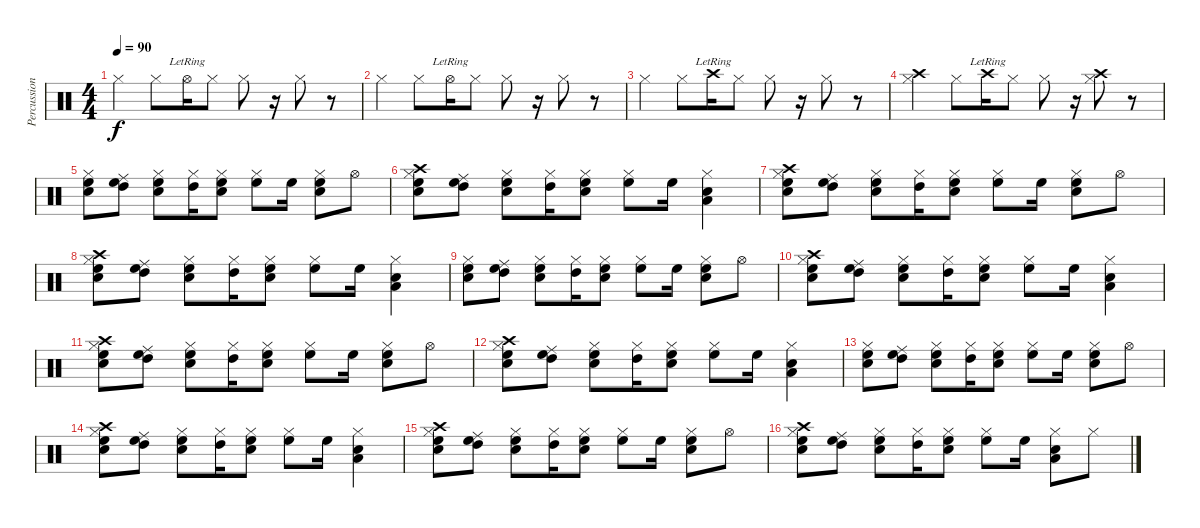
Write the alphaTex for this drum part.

\track ("Percussions" "Percussion") {instrument percussion}
\staff {score}
\articulation defaults
\ts (4 4)
\tempo 90
\clef neutral
\ks c "Hi-Hat (closed)".4{dy f} "Hi-Hat (closed)".8 "Hi-Hat (open)"{lr}.16 "Hi-Hat (closed)".8 "Hi-Hat (closed)".8
r.16 "Hi-Hat (closed)".8 r.8 |
"Hi-Hat (closed)".4 "Hi-Hat (closed)".8 "Hi-Hat (open)"{lr}.16 "Hi-Hat (closed)".8 "Hi-Hat (closed)".8 r.16 "Hi-Hat (closed)".8 r.8 |
"Hi-Hat (closed)".4 "Hi-Hat (closed)".8 "Crash high (hit)"{lr}.16 "Hi-Hat (closed)".8 "Hi-Hat (closed)".8 r.16 "Hi-Hat (closed)".8 r.8 |
("Hi-Hat (closed)" "Crash high (hit)").4 "Hi-Hat (closed)".8 "Crash high (hit)"{lr}.16 "Hi-Hat (closed)".8 "Hi-Hat (closed)".8 r.16 ("Hi-Hat (closed)" "Crash high (hit)").8 r.8 |
("Hi-Hat (closed)" "Snare (hit) 2" "High Floor Tom (hit)").8 ("Ride (middle)" "High Floor Tom (hit)" "High Tom (hit)").8 ("Hi-Hat (closed)" "Snare (hit) 2" "High Floor Tom (hit)").8 ("Hi-Hat (closed)" "High Tom (hit)").16 ("Hi-Hat (closed)" "Snare (hit) 2" "High Floor Tom (hit)").8 ("Hi-Hat (closed)" "High Floor Tom (hit)").8 "High Floor Tom (hit)".16 ("Hi-Hat (closed)" "Snare (hit) 2" "High Floor Tom (hit)").8 "Hi-Hat (open)".8 |
("Hi-Hat (closed)" "Snare (hit) 2" "High Floor Tom (hit)" "Crash high (hit)").8 ("Ride (middle)" "High Floor Tom (hit)" "High Tom (hit)").8 ("Hi-Hat (closed)" "Snare (hit) 2" "High Floor Tom (hit)").8 ("Hi-Hat (closed)" "High Tom (hit)").16 ("Hi-Hat (closed)" "Snare (hit) 2" "High Floor Tom (hit)").8 ("Hi-Hat (closed)" "High Floor Tom (hit)").8 "High Floor Tom (hit)".16 ("Hi-Hat (closed)" "Snare (hit) 2" "Low Floor Tom (hit)").4 |
("Hi-Hat (closed)" "Snare (hit) 2" "High Floor Tom (hit)" "Crash high (hit)").8 ("Ride (middle)" "High Floor Tom (hit)" "High Tom (hit)").8 ("Hi-Hat (closed)" "Snare (hit) 2" "High Floor Tom (hit)").8 ("Hi-Hat (closed)" "High Tom (hit)").16 ("Hi-Hat (closed)" "Snare (hit) 2" "High Floor Tom (hit)").8 ("Hi-Hat (closed)" "High Floor Tom (hit)").8 "High Floor Tom (hit)".16 ("Hi-Hat (closed)" "Snare (hit) 2" "High Floor Tom (hit)").8 "Hi-Hat (open)".8 |
("Hi-Hat (closed)" "Snare (hit) 2" "High Floor Tom (hit)" "Crash high (hit)").8 ("Ride (middle)" "High Floor Tom (hit)" "High Tom (hit)").8 ("Hi-Hat (closed)" "Snare (hit) 2" "High Floor Tom (hit)").8 ("Hi-Hat (closed)" "High Tom (hit)").16 ("Hi-Hat (closed)" "Snare (hit) 2" "High Floor Tom (hit)").8 ("Hi-Hat (closed)" "High Floor Tom (hit)").8 "High Floor Tom (hit)".16 ("Hi-Hat (closed)" "Snare (hit) 2" "Low Floor Tom (hit)").4 |
("Hi-Hat (closed)" "Snare (hit) 2" "High Floor Tom (hit)").8 ("Ride (middle)" "High Floor Tom (hit)" "High Tom (hit)").8 ("Hi-Hat (closed)" "Snare (hit) 2" "High Floor Tom (hit)").8 ("Hi-Hat (closed)" "High Tom (hit)").16 ("Hi-Hat (closed)" "Snare (hit) 2" "High Floor Tom (hit)").8 ("Hi-Hat (closed)" "High Floor Tom (hit)").8 "High Floor Tom (hit)".16 ("Hi-Hat (closed)" "Snare (hit) 2" "High Floor Tom (hit)").8 "Hi-Hat (open)".8 |
("Hi-Hat (closed)" "Snare (hit) 2" "High Floor Tom (hit)" "Crash high (hit)").8 ("Ride (middle)" "High Floor Tom (hit)" "High Tom (hit)").8 ("Hi-Hat (closed)" "Snare (hit) 2" "High Floor Tom (hit)").8 ("Hi-Hat (closed)" "High Tom (hit)").16 ("Hi-Hat (closed)" "Snare (hit) 2" "High Floor Tom (hit)").8 ("Hi-Hat (closed)" "High Floor Tom (hit)").8 "High Floor Tom (hit)".16 ("Hi-Hat (closed)" "Snare (hit) 2" "Low Floor Tom (hit)").4 |
("Hi-Hat (closed)" "Snare (hit) 2" "High Floor Tom (hit)" "Crash high (hit)").8 ("Ride (middle)" "High Floor Tom (hit)" "High Tom (hit)").8 ("Hi-Hat (closed)" "Snare (hit) 2" "High Floor Tom (hit)").8 ("Hi-Hat (closed)" "High Tom (hit)").16 ("Hi-Hat (closed)" "Snare (hit) 2" "High Floor Tom (hit)").8 ("Hi-Hat (closed)" "High Floor Tom (hit)").8 "High Floor Tom (hit)".16 ("Hi-Hat (closed)" "Snare (hit) 2" "High Floor Tom (hit)").8 "Hi-Hat (open)".8 |
("Hi-Hat (closed)" "Snare (hit) 2" "High Floor Tom (hit)" "Crash high (hit)").8 ("Ride (middle)" "High Floor Tom (hit)" "High Tom (hit)").8 ("Hi-Hat (closed)" "Snare (hit) 2" "High Floor Tom (hit)").8 ("Hi-Hat (closed)" "High Tom (hit)").16 ("Hi-Hat (closed)" "Snare (hit) 2" "High Floor Tom (hit)").8 ("Hi-Hat (closed)" "High Floor Tom (hit)").8 "High Floor Tom (hit)".16 ("Hi-Hat (closed)" "Snare (hit) 2" "Low Floor Tom (hit)").4 |
("Hi-Hat (closed)" "Snare (hit) 2" "High Floor Tom (hit)").8 ("Ride (middle)" "High Floor Tom (hit)" "High Tom (hit)").8 ("Hi-Hat (closed)" "Snare (hit) 2" "High Floor Tom (hit)").8 ("Hi-Hat (closed)" "High Tom (hit)").16 ("Hi-Hat (closed)" "Snare (hit) 2" "High Floor Tom (hit)").8 ("Hi-Hat (closed)" "High Floor Tom (hit)").8 "High Floor Tom (hit)".16 ("Hi-Hat (closed)" "Snare (hit) 2" "High Floor Tom (hit)").8 "Hi-Hat (open)".8 |
("Hi-Hat (closed)" "Snare (hit) 2" "High Floor Tom (hit)" "Crash high (hit)").8 ("Ride (middle)" "High Floor Tom (hit)" "High Tom (hit)").8 ("Hi-Hat (closed)" "Snare (hit) 2" "High Floor Tom (hit)").8 ("Hi-Hat (closed)" "High Tom (hit)").16 ("Hi-Hat (closed)" "Snare (hit) 2" "High Floor Tom (hit)").8 ("Hi-Hat (closed)" "High Floor Tom (hit)").8 "High Floor Tom (hit)".16 ("Hi-Hat (closed)" "Snare (hit) 2" "Low Floor Tom (hit)").4 |
("Hi-Hat (closed)" "Snare (hit) 2" "High Floor Tom (hit)" "Crash high (hit)").8 ("Ride (middle)" "High Floor Tom (hit)" "High Tom (hit)").8 ("Hi-Hat (closed)" "Snare (hit) 2" "High Floor Tom (hit)").8 ("Hi-Hat (closed)" "High Tom (hit)").16 ("Hi-Hat (closed)" "Snare (hit) 2" "High Floor Tom (hit)").8 ("Hi-Hat (closed)" "High Floor Tom (hit)").8 "High Floor Tom (hit)".16 ("Hi-Hat (closed)" "Snare (hit) 2" "High Floor Tom (hit)").8 "Hi-Hat (open)".8 |
("Hi-Hat (closed)" "Snare (hit) 2" "High Floor Tom (hit)" "Crash high (hit)").8 ("Ride (middle)" "High Floor Tom (hit)" "High Tom (hit)").8 ("Hi-Hat (closed)" "Snare (hit) 2" "High Floor Tom (hit)").8 ("Hi-Hat (closed)" "High Tom (hit)").16 ("Hi-Hat (closed)" "Snare (hit) 2" "High Floor Tom (hit)").8 ("Hi-Hat (closed)" "High Floor Tom (hit)").8 "High Floor Tom (hit)".16 ("Hi-Hat (closed)" "Snare (hit) 2" "Low Floor Tom (hit)").8 "Hi-Hat (closed)".8
